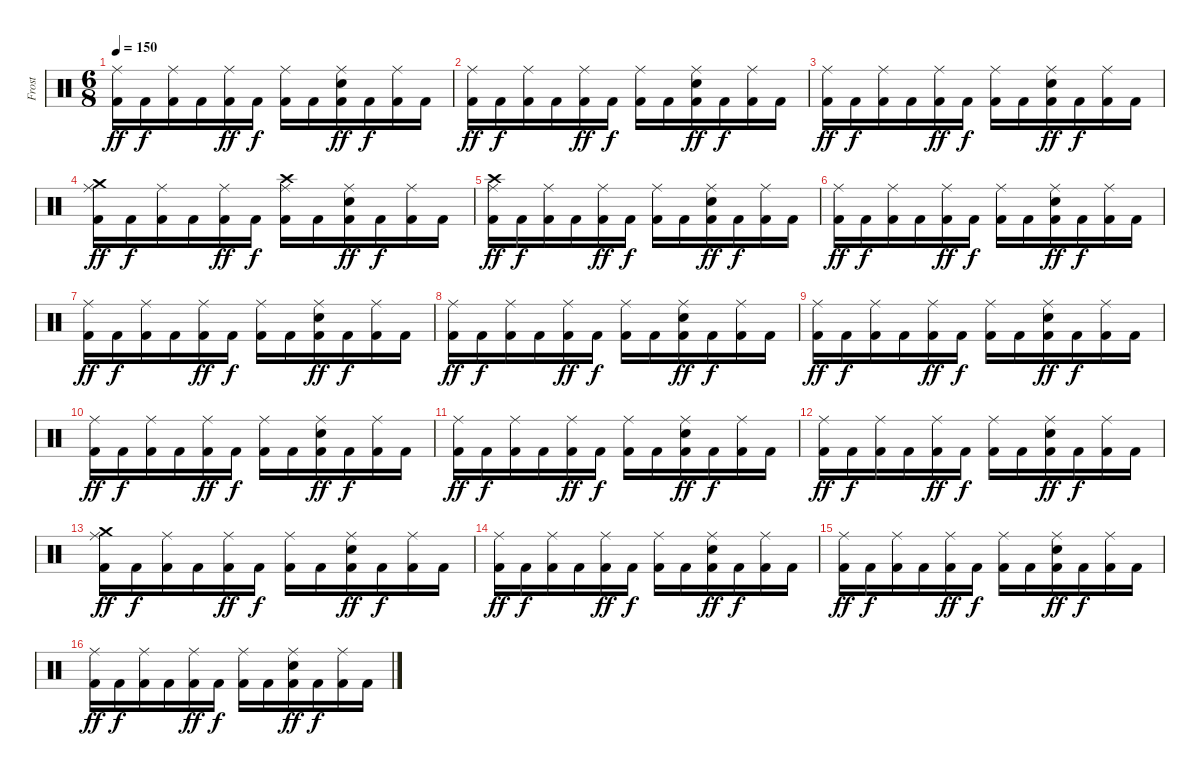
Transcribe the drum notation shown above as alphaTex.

\track ("Frost" "Frost") {instrument percussion}
\staff {score}
\articulation defaults
\ts (6 8)
\tempo 150
\clef neutral
\ks c
("Kick (hit) 2" "Ride (middle)").16{dy ff} "Kick (hit) 2".16{dy f} ("Kick (hit) 2" "Ride (middle)").16 "Kick (hit) 2".16 ("Kick (hit) 2" "Ride (middle)").16{dy ff} "Kick (hit) 2".16{dy f} ("Kick (hit) 2" "Ride (middle)").16 "Kick (hit) 2".16 ("Kick (hit) 2" "Snare (hit) 2" "Ride (middle)").16{dy ff} "Kick (hit) 2".16{dy f} ("Kick (hit) 2" "Ride (middle)").16 "Kick (hit) 2".16 |
("Kick (hit) 2" "Ride (middle)").16{dy ff} "Kick (hit) 2".16{dy f} ("Kick (hit) 2" "Ride (middle)").16 "Kick (hit) 2".16 ("Kick (hit) 2" "Ride (middle)").16{dy ff} "Kick (hit) 2".16{dy f} ("Kick (hit) 2" "Ride (middle)").16 "Kick (hit) 2".16 ("Kick (hit) 2" "Snare (hit) 2" "Ride (middle)").16{dy ff} "Kick (hit) 2".16{dy f} ("Kick (hit) 2" "Ride (middle)").16 "Kick (hit) 2".16 |
("Kick (hit) 2" "Ride (middle)").16{dy ff} "Kick (hit) 2".16{dy f} ("Kick (hit) 2" "Ride (middle)").16 "Kick (hit) 2".16 ("Kick (hit) 2" "Ride (middle)").16{dy ff} "Kick (hit) 2".16{dy f} ("Kick (hit) 2" "Ride (middle)").16 "Kick (hit) 2".16 ("Kick (hit) 2" "Snare (hit) 2" "Ride (middle)").16{dy ff} "Kick (hit) 2".16{dy f} ("Kick (hit) 2" "Ride (middle)").16 "Kick (hit) 2".16 |
("Kick (hit) 2" "Crash medium (hit)" "Ride (middle)").16{dy ff} "Kick (hit) 2".16{dy f} ("Kick (hit) 2" "Ride (middle)").16 "Kick (hit) 2".16 ("Kick (hit) 2" "Ride (middle)").16{dy ff} "Kick (hit) 2".16{dy f} ("Kick (hit) 2" "Crash high (hit)" "Ride (middle)").16 "Kick (hit) 2".16 ("Kick (hit) 2" "Snare (hit) 2" "Ride (middle)").16{dy ff} "Kick (hit) 2".16{dy f} ("Kick (hit) 2" "Ride (middle)").16 "Kick (hit) 2".16 |
("Kick (hit) 2" "Crash high (hit)" "Ride (middle)").16{dy ff} "Kick (hit) 2".16{dy f} ("Kick (hit) 2" "Ride (middle)").16 "Kick (hit) 2".16 ("Kick (hit) 2" "Ride (middle)").16{dy ff} "Kick (hit) 2".16{dy f} ("Kick (hit) 2" "Ride (middle)").16 "Kick (hit) 2".16 ("Kick (hit) 2" "Snare (hit) 2" "Ride (middle)").16{dy ff} "Kick (hit) 2".16{dy f} ("Kick (hit) 2" "Ride (middle)").16 "Kick (hit) 2".16 |
("Kick (hit) 2" "Ride (middle)").16{dy ff} "Kick (hit) 2".16{dy f} ("Kick (hit) 2" "Ride (middle)").16 "Kick (hit) 2".16 ("Kick (hit) 2" "Ride (middle)").16{dy ff} "Kick (hit) 2".16{dy f} ("Kick (hit) 2" "Ride (middle)").16 "Kick (hit) 2".16 ("Kick (hit) 2" "Snare (hit) 2" "Ride (middle)").16{dy ff} "Kick (hit) 2".16{dy f} ("Kick (hit) 2" "Ride (middle)").16 "Kick (hit) 2".16 |
("Kick (hit) 2" "Ride (middle)").16{dy ff} "Kick (hit) 2".16{dy f} ("Kick (hit) 2" "Ride (middle)").16 "Kick (hit) 2".16 ("Kick (hit) 2" "Ride (middle)").16{dy ff} "Kick (hit) 2".16{dy f} ("Kick (hit) 2" "Ride (middle)").16 "Kick (hit) 2".16 ("Kick (hit) 2" "Snare (hit) 2" "Ride (middle)").16{dy ff} "Kick (hit) 2".16{dy f} ("Kick (hit) 2" "Ride (middle)").16 "Kick (hit) 2".16 |
("Kick (hit) 2" "Ride (middle)").16{dy ff} "Kick (hit) 2".16{dy f} ("Kick (hit) 2" "Ride (middle)").16 "Kick (hit) 2".16 ("Kick (hit) 2" "Ride (middle)").16{dy ff} "Kick (hit) 2".16{dy f} ("Kick (hit) 2" "Ride (middle)").16 "Kick (hit) 2".16 ("Kick (hit) 2" "Snare (hit) 2" "Ride (middle)").16{dy ff} "Kick (hit) 2".16{dy f} ("Kick (hit) 2" "Ride (middle)").16 "Kick (hit) 2".16 |
("Kick (hit) 2" "Ride (middle)").16{dy ff} "Kick (hit) 2".16{dy f} ("Kick (hit) 2" "Ride (middle)").16 "Kick (hit) 2".16 ("Kick (hit) 2" "Ride (middle)").16{dy ff} "Kick (hit) 2".16{dy f} ("Kick (hit) 2" "Ride (middle)").16 "Kick (hit) 2".16 ("Kick (hit) 2" "Snare (hit) 2" "Ride (middle)").16{dy ff} "Kick (hit) 2".16{dy f} ("Kick (hit) 2" "Ride (middle)").16 "Kick (hit) 2".16 |
("Kick (hit) 2" "Ride (middle)").16{dy ff} "Kick (hit) 2".16{dy f} ("Kick (hit) 2" "Ride (middle)").16 "Kick (hit) 2".16 ("Kick (hit) 2" "Ride (middle)").16{dy ff} "Kick (hit) 2".16{dy f} ("Kick (hit) 2" "Ride (middle)").16 "Kick (hit) 2".16 ("Kick (hit) 2" "Snare (hit) 2" "Ride (middle)").16{dy ff} "Kick (hit) 2".16{dy f} ("Kick (hit) 2" "Ride (middle)").16 "Kick (hit) 2".16 |
("Kick (hit) 2" "Ride (middle)").16{dy ff} "Kick (hit) 2".16{dy f} ("Kick (hit) 2" "Ride (middle)").16 "Kick (hit) 2".16 ("Kick (hit) 2" "Ride (middle)").16{dy ff} "Kick (hit) 2".16{dy f} ("Kick (hit) 2" "Ride (middle)").16 "Kick (hit) 2".16 ("Kick (hit) 2" "Snare (hit) 2" "Ride (middle)").16{dy ff} "Kick (hit) 2".16{dy f} ("Kick (hit) 2" "Ride (middle)").16 "Kick (hit) 2".16 |
("Kick (hit) 2" "Ride (middle)").16{dy ff} "Kick (hit) 2".16{dy f} ("Kick (hit) 2" "Ride (middle)").16 "Kick (hit) 2".16 ("Kick (hit) 2" "Ride (middle)").16{dy ff} "Kick (hit) 2".16{dy f} ("Kick (hit) 2" "Ride (middle)").16 "Kick (hit) 2".16 ("Kick (hit) 2" "Snare (hit) 2" "Ride (middle)").16{dy ff} "Kick (hit) 2".16{dy f} ("Kick (hit) 2" "Ride (middle)").16 "Kick (hit) 2".16 |
("Kick (hit) 2" "Crash medium (hit)" "Ride (middle)").16{dy ff} "Kick (hit) 2".16{dy f} ("Kick (hit) 2" "Ride (middle)").16 "Kick (hit) 2".16 ("Kick (hit) 2" "Ride (middle)").16{dy ff} "Kick (hit) 2".16{dy f} ("Kick (hit) 2" "Ride (middle)").16 "Kick (hit) 2".16 ("Kick (hit) 2" "Snare (hit) 2" "Ride (middle)").16{dy ff} "Kick (hit) 2".16{dy f} ("Kick (hit) 2" "Ride (middle)").16 "Kick (hit) 2".16 |
("Kick (hit) 2" "Ride (middle)").16{dy ff} "Kick (hit) 2".16{dy f} ("Kick (hit) 2" "Ride (middle)").16 "Kick (hit) 2".16 ("Kick (hit) 2" "Ride (middle)").16{dy ff} "Kick (hit) 2".16{dy f} ("Kick (hit) 2" "Ride (middle)").16 "Kick (hit) 2".16 ("Kick (hit) 2" "Snare (hit) 2" "Ride (middle)").16{dy ff} "Kick (hit) 2".16{dy f} ("Kick (hit) 2" "Ride (middle)").16 "Kick (hit) 2".16 |
("Kick (hit) 2" "Ride (middle)").16{dy ff} "Kick (hit) 2".16{dy f} ("Kick (hit) 2" "Ride (middle)").16 "Kick (hit) 2".16 ("Kick (hit) 2" "Ride (middle)").16{dy ff} "Kick (hit) 2".16{dy f} ("Kick (hit) 2" "Ride (middle)").16 "Kick (hit) 2".16 ("Kick (hit) 2" "Snare (hit) 2" "Ride (middle)").16{dy ff} "Kick (hit) 2".16{dy f} ("Kick (hit) 2" "Ride (middle)").16 "Kick (hit) 2".16 |
("Kick (hit) 2" "Ride (middle)").16{dy ff} "Kick (hit) 2".16{dy f} ("Kick (hit) 2" "Ride (middle)").16 "Kick (hit) 2".16 ("Kick (hit) 2" "Ride (middle)").16{dy ff} "Kick (hit) 2".16{dy f} ("Kick (hit) 2" "Ride (middle)").16 "Kick (hit) 2".16 ("Kick (hit) 2" "Snare (hit) 2" "Ride (middle)").16{dy ff} "Kick (hit) 2".16{dy f} ("Kick (hit) 2" "Ride (middle)").16 "Kick (hit) 2".16
